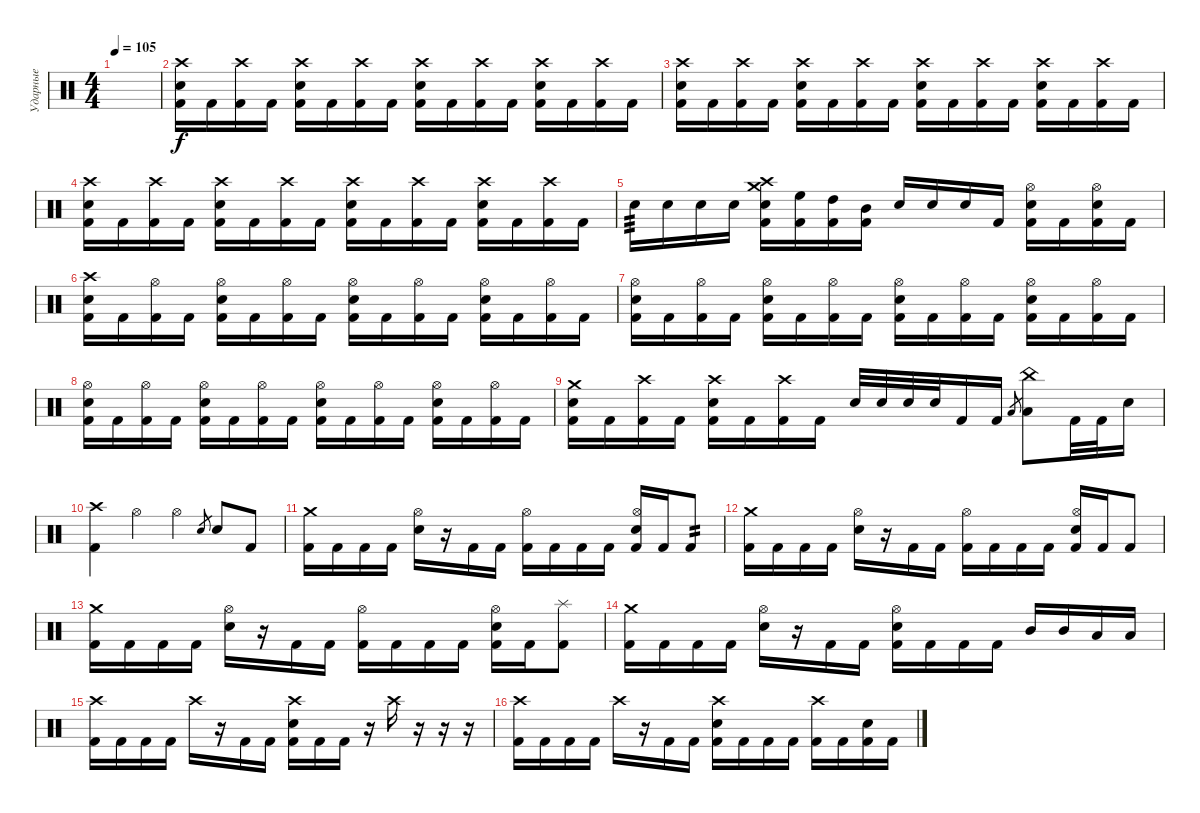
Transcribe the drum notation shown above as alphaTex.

\track ("Ударные" "Ударные") {instrument percussion}
\staff
\articulation defaults
\ts (4 4)
\tempo 105
\clef neutral
\ks c
|
("Crash high (hit)" "Electric Snare (hit)" "Kick (hit) 2").16 "Kick (hit) 2".16 ("Crash high (hit)" "Kick (hit) 2").16 "Kick (hit) 2".16 ("Crash high (hit)" "Electric Snare (hit)" "Kick (hit) 2").16 "Kick (hit) 2".16 ("Crash high (hit)" "Kick (hit) 2").16 "Kick (hit) 2".16 ("Crash high (hit)" "Electric Snare (hit)" "Kick (hit) 2").16 "Kick (hit) 2".16 ("Crash high (hit)" "Kick (hit) 2").16 "Kick (hit) 2".16 ("Crash high (hit)" "Electric Snare (hit)" "Kick (hit) 2").16 "Kick (hit) 2".16 ("Crash high (hit)" "Kick (hit) 2").16 "Kick (hit) 2".16 |
("Crash high (hit)" "Electric Snare (hit)" "Kick (hit) 2").16 "Kick (hit) 2".16 ("Crash high (hit)" "Kick (hit) 2").16 "Kick (hit) 2".16 ("Crash high (hit)" "Electric Snare (hit)" "Kick (hit) 2").16 "Kick (hit) 2".16 ("Crash high (hit)" "Kick (hit) 2").16 "Kick (hit) 2".16 ("Crash high (hit)" "Electric Snare (hit)" "Kick (hit) 2").16 "Kick (hit) 2".16 ("Crash high (hit)" "Kick (hit) 2").16 "Kick (hit) 2".16 ("Crash high (hit)" "Electric Snare (hit)" "Kick (hit) 2").16 "Kick (hit) 2".16 ("Crash high (hit)" "Kick (hit) 2").16 "Kick (hit) 2".16 |
("Crash high (hit)" "Electric Snare (hit)" "Kick (hit) 2").16 "Kick (hit) 2".16 ("Crash high (hit)" "Kick (hit) 2").16 "Kick (hit) 2".16 ("Crash high (hit)" "Electric Snare (hit)" "Kick (hit) 2").16 "Kick (hit) 2".16 ("Crash high (hit)" "Kick (hit) 2").16 "Kick (hit) 2".16 ("Crash high (hit)" "Electric Snare (hit)" "Kick (hit) 2").16 "Kick (hit) 2".16 ("Crash high (hit)" "Kick (hit) 2").16 "Kick (hit) 2".16 ("Crash high (hit)" "Electric Snare (hit)" "Kick (hit) 2").16 "Kick (hit) 2".16 ("Crash high (hit)" "Kick (hit) 2").16 "Kick (hit) 2".16 |
"Electric Snare (hit)".16{tp 3} "Electric Snare (hit)".16 "Electric Snare (hit)".16 "Electric Snare (hit)".16 ("Crash high (hit)" "Crash medium (hit)" "Electric Snare (hit)" "Kick (hit) 2").16 ("High Floor Tom (hit)" "Kick (hit) 2").16 ("High Tom (hit)" "Kick (hit) 2").16 ("Mid Tom (hit)" "Kick (hit) 2").16 "Electric Snare (hit)".16 "Electric Snare (hit)".16 "Electric Snare (hit)".16 "Kick (hit) 2".16 ("Hi-Hat (open)" "Electric Snare (hit)" "Kick (hit) 2").16 "Kick (hit) 2".16 ("Hi-Hat (open)" "Electric Snare (hit)" "Kick (hit) 2").16 "Kick (hit) 2".16 |
("Crash high (hit)" "Electric Snare (hit)" "Kick (hit) 2").16 "Kick (hit) 2".16 ("Hi-Hat (open)" "Kick (hit) 2").16 "Kick (hit) 2".16 ("Hi-Hat (open)" "Electric Snare (hit)" "Kick (hit) 2").16 "Kick (hit) 2".16 ("Hi-Hat (open)" "Kick (hit) 2").16 "Kick (hit) 2".16 ("Hi-Hat (open)" "Electric Snare (hit)" "Kick (hit) 2").16 "Kick (hit) 2".16 ("Hi-Hat (open)" "Kick (hit) 2").16 "Kick (hit) 2".16 ("Hi-Hat (open)" "Electric Snare (hit)" "Kick (hit) 2").16 "Kick (hit) 2".16 ("Hi-Hat (open)" "Kick (hit) 2").16 "Kick (hit) 2".16 |
("Hi-Hat (open)" "Electric Snare (hit)" "Kick (hit) 2").16 "Kick (hit) 2".16 ("Hi-Hat (open)" "Kick (hit) 2").16 "Kick (hit) 2".16 ("Hi-Hat (open)" "Electric Snare (hit)" "Kick (hit) 2").16 "Kick (hit) 2".16 ("Hi-Hat (open)" "Kick (hit) 2").16 "Kick (hit) 2".16 ("Hi-Hat (open)" "Electric Snare (hit)" "Kick (hit) 2").16 "Kick (hit) 2".16 ("Hi-Hat (open)" "Kick (hit) 2").16 "Kick (hit) 2".16 ("Hi-Hat (open)" "Electric Snare (hit)" "Kick (hit) 2").16 "Kick (hit) 2".16 ("Hi-Hat (open)" "Kick (hit) 2").16 "Kick (hit) 2".16 |
("Hi-Hat (open)" "Electric Snare (hit)" "Kick (hit) 2").16 "Kick (hit) 2".16 ("Hi-Hat (open)" "Kick (hit) 2").16 "Kick (hit) 2".16 ("Hi-Hat (open)" "Electric Snare (hit)" "Kick (hit) 2").16 "Kick (hit) 2".16 ("Hi-Hat (open)" "Kick (hit) 2").16 "Kick (hit) 2".16 ("Hi-Hat (open)" "Electric Snare (hit)" "Kick (hit) 2").16 "Kick (hit) 2".16 ("Hi-Hat (open)" "Kick (hit) 2").16 "Kick (hit) 2".16 ("Hi-Hat (open)" "Electric Snare (hit)" "Kick (hit) 2").16 "Kick (hit) 2".16 ("Hi-Hat (open)" "Kick (hit) 2").16 "Kick (hit) 2".16 |
("Crash medium (hit)" "Electric Snare (hit)" "Kick (hit) 2").16 "Kick (hit) 2".16 ("Crash high (hit)" "Kick (hit) 2").16 "Kick (hit) 2".16 ("Crash high (hit)" "Electric Snare (hit)" "Kick (hit) 2").16 "Kick (hit) 2".16 ("Crash high (hit)" "Kick (hit) 2").16 "Kick (hit) 2".16 "Electric Snare (hit)".32 "Electric Snare (hit)".32 "Electric Snare (hit)".32 "Electric Snare (hit)".32 "Kick (hit) 2".16 "Kick (hit) 2".16 "Low Tom (hit)".8{gr} ("China (hit)" "Low Tom (hit)").8 "Kick (hit) 2".32 "Kick (hit) 2".32 "Snare (hit) 2".16 |
("Crash high (hit)" "Kick (hit) 2").4 "Hi-Hat (open)".4 "Hi-Hat (open)".4 "Electric Snare (hit)".8{gr} "Electric Snare (hit)".8 "Kick (hit) 2".8 |
("Crash medium (hit)" "Kick (hit) 2").16 "Kick (hit) 2".16 "Kick (hit) 2".16 "Kick (hit) 2".16 ("Hi-Hat (open)" "Snare (hit) 2").16 r.16 "Kick (hit) 2".16 "Kick (hit) 2".16 ("Hi-Hat (open)" "Kick (hit) 2").16 "Kick (hit) 2".16 "Kick (hit) 2".16 "Kick (hit) 2".16 ("Hi-Hat (open)" "Snare (hit) 2" "Kick (hit) 2").16 "Kick (hit) 2".16 "Kick (hit) 2".8{tp 2} |
("Crash medium (hit)" "Kick (hit) 2").16 "Kick (hit) 2".16 "Kick (hit) 2".16 "Kick (hit) 2".16 ("Hi-Hat (open)" "Snare (hit) 2").16 r.16 "Kick (hit) 2".16 "Kick (hit) 2".16 ("Hi-Hat (open)" "Kick (hit) 2").16 "Kick (hit) 2".16 "Kick (hit) 2".16 "Kick (hit) 2".16 ("Hi-Hat (open)" "Snare (hit) 2" "Kick (hit) 2").16 "Kick (hit) 2".16 "Kick (hit) 2".8 |
("Crash medium (hit)" "Kick (hit) 2").16 "Kick (hit) 2".16 "Kick (hit) 2".16 "Kick (hit) 2".16 ("Hi-Hat (open)" "Snare (hit) 2").16 r.16 "Kick (hit) 2".16 "Kick (hit) 2".16 ("Hi-Hat (open)" "Kick (hit) 2").16 "Kick (hit) 2".16 "Kick (hit) 2".16 "Kick (hit) 2".16 ("Hi-Hat (open)" "Snare (hit) 2" "Kick (hit) 2").16 "Kick (hit) 2".16 ("Splash (hit)" "Kick (hit) 2").8 |
("Crash medium (hit)" "Kick (hit) 2").16 "Kick (hit) 2".16 "Kick (hit) 2".16 "Kick (hit) 2".16 ("Hi-Hat (open)" "Snare (hit) 2").16 r.16 "Kick (hit) 2".16 "Kick (hit) 2".16 ("Hi-Hat (open)" "Electric Snare (hit)" "Kick (hit) 2").16 "Kick (hit) 2".16 "Kick (hit) 2".16 "Kick (hit) 2".16 "Mid Tom (hit)".16 "Mid Tom (hit)".16 "Low Tom (hit)".16 "Low Tom (hit)".16 |
("Crash high (hit)" "Kick (hit) 2").16 "Kick (hit) 2".16 "Kick (hit) 2".16 "Kick (hit) 2".16 "Crash high (hit)".16 r.16 "Kick (hit) 2".16 "Kick (hit) 2".16 ("Crash high (hit)" "Electric Snare (hit)" "Kick (hit) 2").16 "Kick (hit) 2".16 "Kick (hit) 2".16 r.16 "Crash high (hit)".16 r.16 r.16 r.16 |
("Crash high (hit)" "Kick (hit) 2").16 "Kick (hit) 2".16 "Kick (hit) 2".16 "Kick (hit) 2".16 "Crash high (hit)".16 r.16 "Kick (hit) 2".16 "Kick (hit) 2".16 ("Crash high (hit)" "Electric Snare (hit)" "Kick (hit) 2").16 "Kick (hit) 2".16 "Kick (hit) 2".16 "Kick (hit) 2".16 ("Crash high (hit)" "Kick (hit) 2").16 "Kick (hit) 2".16 ("Electric Snare (hit)" "Kick (hit) 2").16 "Kick (hit) 2".16
